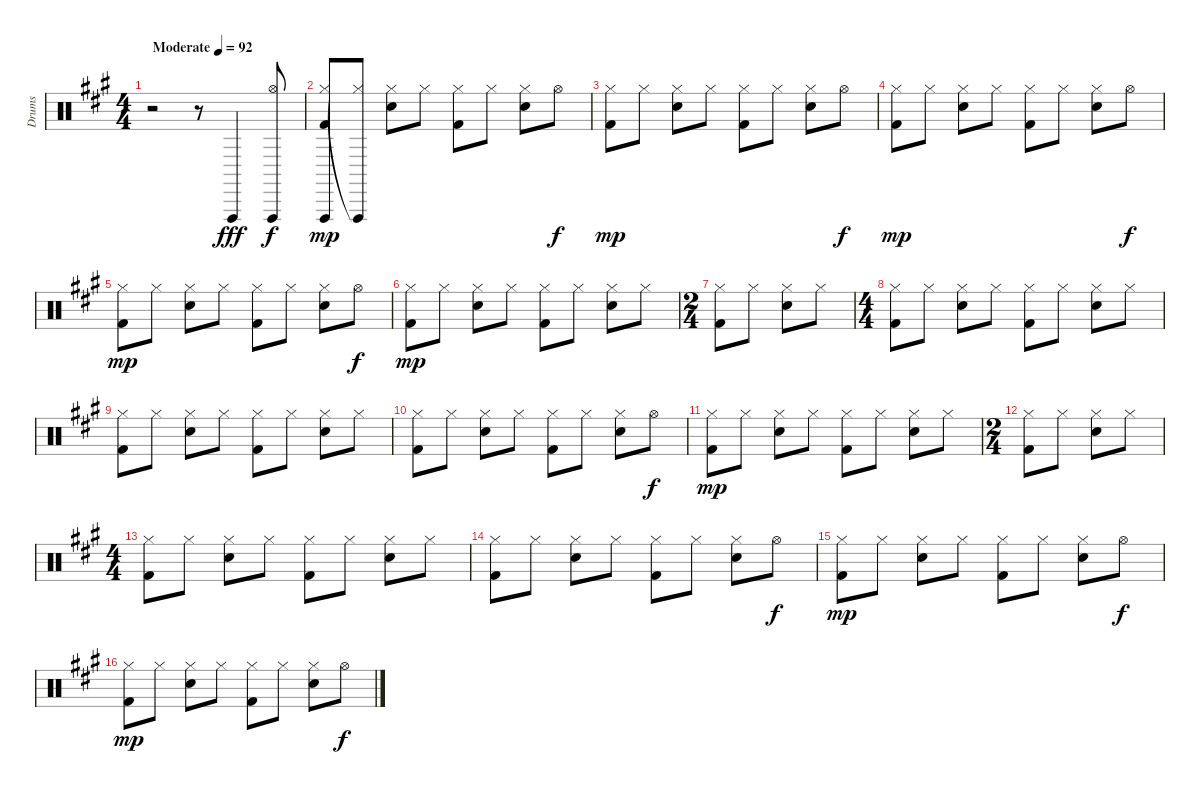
\track ("Drums" "Drums") {instrument percussion}
\staff {score}
\articulation defaults
\ts (4 4)
\tempo (92 "Moderate")
\clef neutral
\ks f#minor
r.2{dy fff} r.8 "Vibraslap (hit)".4 ("Hi-Hat (open)" "Vibraslap (hit)").8{dy f} |
("Kick (hit) 2" "Hi-Hat (closed)" "Vibraslap (hit)").8{dy mp} ("Hi-Hat (closed)" "Vibraslap (hit)"{t}).8 ("Snare (hit) 2" "Hi-Hat (closed)").8 "Hi-Hat (closed)".8 ("Kick (hit) 2" "Hi-Hat (closed)").8 "Hi-Hat (closed)".8 ("Snare (hit) 2" "Hi-Hat (closed)").8 "Hi-Hat (open)".8{dy f} |
("Kick (hit) 2" "Hi-Hat (closed)").8{dy mp} "Hi-Hat (closed)".8 ("Snare (hit) 2" "Hi-Hat (closed)").8 "Hi-Hat (closed)".8 ("Kick (hit) 2" "Hi-Hat (closed)").8 "Hi-Hat (closed)".8 ("Snare (hit) 2" "Hi-Hat (closed)").8 "Hi-Hat (open)".8{dy f} |
("Kick (hit) 2" "Hi-Hat (closed)").8{dy mp} "Hi-Hat (closed)".8 ("Snare (hit) 2" "Hi-Hat (closed)").8 "Hi-Hat (closed)".8 ("Kick (hit) 2" "Hi-Hat (closed)").8 "Hi-Hat (closed)".8 ("Snare (hit) 2" "Hi-Hat (closed)").8 "Hi-Hat (open)".8{dy f} |
("Kick (hit) 2" "Hi-Hat (closed)").8{dy mp} "Hi-Hat (closed)".8 ("Snare (hit) 2" "Hi-Hat (closed)").8 "Hi-Hat (closed)".8 ("Kick (hit) 2" "Hi-Hat (closed)").8 "Hi-Hat (closed)".8 ("Snare (hit) 2" "Hi-Hat (closed)").8 "Hi-Hat (open)".8{dy f} |
("Kick (hit) 2" "Hi-Hat (closed)").8{dy mp} "Hi-Hat (closed)".8 ("Snare (hit) 2" "Hi-Hat (closed)").8 "Hi-Hat (closed)".8 ("Kick (hit) 2" "Hi-Hat (closed)").8 "Hi-Hat (closed)".8 ("Snare (hit) 2" "Hi-Hat (closed)").8 "Hi-Hat (closed)".8 |
\ts (2 4)
("Kick (hit) 2" "Hi-Hat (closed)").8 "Hi-Hat (closed)".8 ("Snare (hit) 2" "Hi-Hat (closed)").8 "Hi-Hat (closed)".8 |
\ts (4 4)
("Kick (hit) 2" "Hi-Hat (closed)").8 "Hi-Hat (closed)".8 ("Snare (hit) 2" "Hi-Hat (closed)").8 "Hi-Hat (closed)".8 ("Kick (hit) 2" "Hi-Hat (closed)").8 "Hi-Hat (closed)".8 ("Snare (hit) 2" "Hi-Hat (closed)").8 "Hi-Hat (closed)".8 |
("Kick (hit) 2" "Hi-Hat (closed)").8 "Hi-Hat (closed)".8 ("Snare (hit) 2" "Hi-Hat (closed)").8 "Hi-Hat (closed)".8 ("Kick (hit) 2" "Hi-Hat (closed)").8 "Hi-Hat (closed)".8 ("Snare (hit) 2" "Hi-Hat (closed)").8 "Hi-Hat (closed)".8 |
("Kick (hit) 2" "Hi-Hat (closed)").8 "Hi-Hat (closed)".8 ("Snare (hit) 2" "Hi-Hat (closed)").8 "Hi-Hat (closed)".8 ("Kick (hit) 2" "Hi-Hat (closed)").8 "Hi-Hat (closed)".8 ("Snare (hit) 2" "Hi-Hat (closed)").8 "Hi-Hat (open)".8{dy f} |
("Kick (hit) 2" "Hi-Hat (closed)").8{dy mp} "Hi-Hat (closed)".8 ("Snare (hit) 2" "Hi-Hat (closed)").8 "Hi-Hat (closed)".8 ("Kick (hit) 2" "Hi-Hat (closed)").8 "Hi-Hat (closed)".8 ("Snare (hit) 2" "Hi-Hat (closed)").8 "Hi-Hat (closed)".8 |
\ts (2 4)
("Kick (hit) 2" "Hi-Hat (closed)").8 "Hi-Hat (closed)".8 ("Snare (hit) 2" "Hi-Hat (closed)").8 "Hi-Hat (closed)".8 |
\ts (4 4)
("Kick (hit) 2" "Hi-Hat (closed)").8 "Hi-Hat (closed)".8 ("Snare (hit) 2" "Hi-Hat (closed)").8 "Hi-Hat (closed)".8 ("Kick (hit) 2" "Hi-Hat (closed)").8 "Hi-Hat (closed)".8 ("Snare (hit) 2" "Hi-Hat (closed)").8 "Hi-Hat (closed)".8 |
("Kick (hit) 2" "Hi-Hat (closed)").8 "Hi-Hat (closed)".8 ("Snare (hit) 2" "Hi-Hat (closed)").8 "Hi-Hat (closed)".8 ("Kick (hit) 2" "Hi-Hat (closed)").8 "Hi-Hat (closed)".8 ("Snare (hit) 2" "Hi-Hat (closed)").8 "Hi-Hat (open)".8{dy f} |
("Kick (hit) 2" "Hi-Hat (closed)").8{dy mp} "Hi-Hat (closed)".8 ("Snare (hit) 2" "Hi-Hat (closed)").8 "Hi-Hat (closed)".8 ("Kick (hit) 2" "Hi-Hat (closed)").8 "Hi-Hat (closed)".8 ("Snare (hit) 2" "Hi-Hat (closed)").8 "Hi-Hat (open)".8{dy f} |
("Kick (hit) 2" "Hi-Hat (closed)").8{dy mp} "Hi-Hat (closed)".8 ("Snare (hit) 2" "Hi-Hat (closed)").8 "Hi-Hat (closed)".8 ("Kick (hit) 2" "Hi-Hat (closed)").8 "Hi-Hat (closed)".8 ("Snare (hit) 2" "Hi-Hat (closed)").8 "Hi-Hat (open)".8{dy f}
